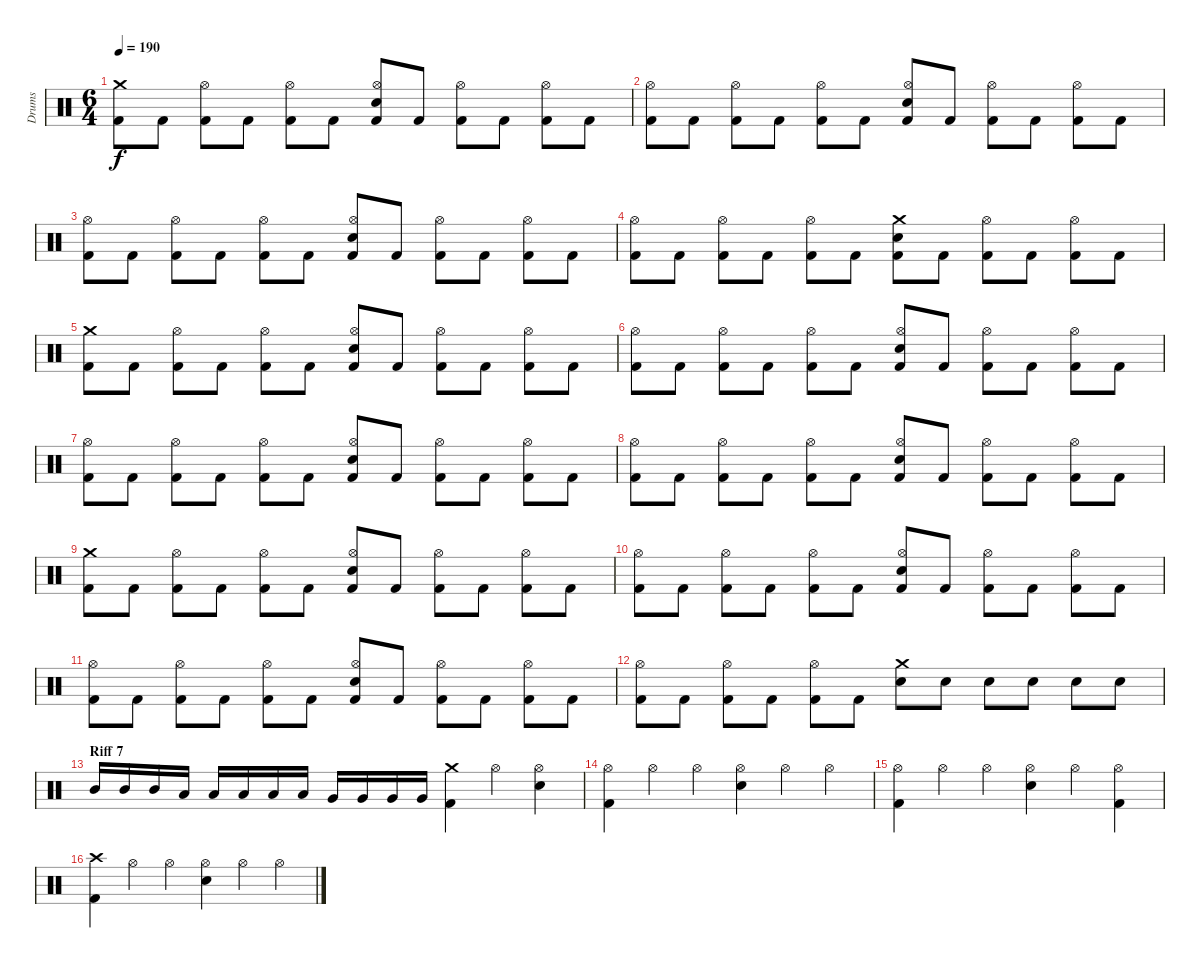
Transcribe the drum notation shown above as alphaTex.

\track ("Drums" "Drums") {instrument percussion}
\staff {score}
\articulation defaults
\ts (6 4)
\tempo 190
\clef neutral
\ks c
("Crash medium (hit)" "Kick (hit) 2").8{dy f} "Kick (hit) 2".8 ("Hi-Hat (open)" "Kick (hit) 2").8 "Kick (hit) 2".8 ("Hi-Hat (open)" "Kick (hit) 2").8 "Kick (hit) 2".8 ("Hi-Hat (open)" "Electric Snare (hit)" "Kick (hit) 2").8 "Kick (hit) 2".8 ("Hi-Hat (open)" "Kick (hit) 2").8 "Kick (hit) 2".8 ("Hi-Hat (open)" "Kick (hit) 2").8 "Kick (hit) 2".8 |
("Hi-Hat (open)" "Kick (hit) 2").8 "Kick (hit) 2".8 ("Hi-Hat (open)" "Kick (hit) 2").8 "Kick (hit) 2".8 ("Hi-Hat (open)" "Kick (hit) 2").8 "Kick (hit) 2".8 ("Hi-Hat (open)" "Electric Snare (hit)" "Kick (hit) 2").8 "Kick (hit) 2".8 ("Hi-Hat (open)" "Kick (hit) 2").8 "Kick (hit) 2".8 ("Hi-Hat (open)" "Kick (hit) 2").8 "Kick (hit) 2".8 |
("Hi-Hat (open)" "Kick (hit) 2").8 "Kick (hit) 2".8 ("Hi-Hat (open)" "Kick (hit) 2").8 "Kick (hit) 2".8 ("Hi-Hat (open)" "Kick (hit) 2").8 "Kick (hit) 2".8 ("Hi-Hat (open)" "Electric Snare (hit)" "Kick (hit) 2").8 "Kick (hit) 2".8 ("Hi-Hat (open)" "Kick (hit) 2").8 "Kick (hit) 2".8 ("Hi-Hat (open)" "Kick (hit) 2").8 "Kick (hit) 2".8 |
("Hi-Hat (open)" "Kick (hit) 2").8 "Kick (hit) 2".8 ("Hi-Hat (open)" "Kick (hit) 2").8 "Kick (hit) 2".8 ("Hi-Hat (open)" "Kick (hit) 2").8 "Kick (hit) 2".8 ("Crash medium (hit)" "Electric Snare (hit)" "Kick (hit) 2").8 "Kick (hit) 2".8 ("Hi-Hat (open)" "Kick (hit) 2").8 "Kick (hit) 2".8 ("Hi-Hat (open)" "Kick (hit) 2").8 "Kick (hit) 2".8 |
("Crash medium (hit)" "Kick (hit) 2").8{volume 13} "Kick (hit) 2".8 ("Hi-Hat (open)" "Kick (hit) 2").8 "Kick (hit) 2".8 ("Hi-Hat (open)" "Kick (hit) 2").8 "Kick (hit) 2".8 ("Hi-Hat (open)" "Electric Snare (hit)" "Kick (hit) 2").8 "Kick (hit) 2".8 ("Hi-Hat (open)" "Kick (hit) 2").8 "Kick (hit) 2".8 ("Hi-Hat (open)" "Kick (hit) 2").8 "Kick (hit) 2".8 |
("Hi-Hat (open)" "Kick (hit) 2").8 "Kick (hit) 2".8 ("Hi-Hat (open)" "Kick (hit) 2").8 "Kick (hit) 2".8 ("Hi-Hat (open)" "Kick (hit) 2").8 "Kick (hit) 2".8 ("Hi-Hat (open)" "Electric Snare (hit)" "Kick (hit) 2").8 "Kick (hit) 2".8 ("Hi-Hat (open)" "Kick (hit) 2").8 "Kick (hit) 2".8 ("Hi-Hat (open)" "Kick (hit) 2").8 "Kick (hit) 2".8 |
("Hi-Hat (open)" "Kick (hit) 2").8 "Kick (hit) 2".8 ("Hi-Hat (open)" "Kick (hit) 2").8 "Kick (hit) 2".8 ("Hi-Hat (open)" "Kick (hit) 2").8 "Kick (hit) 2".8 ("Hi-Hat (open)" "Electric Snare (hit)" "Kick (hit) 2").8 "Kick (hit) 2".8 ("Hi-Hat (open)" "Kick (hit) 2").8 "Kick (hit) 2".8 ("Hi-Hat (open)" "Kick (hit) 2").8 "Kick (hit) 2".8 |
("Hi-Hat (open)" "Kick (hit) 2").8 "Kick (hit) 2".8 ("Hi-Hat (open)" "Kick (hit) 2").8 "Kick (hit) 2".8 ("Hi-Hat (open)" "Kick (hit) 2").8 "Kick (hit) 2".8 ("Hi-Hat (open)" "Electric Snare (hit)" "Kick (hit) 2").8 "Kick (hit) 2".8 ("Hi-Hat (open)" "Kick (hit) 2").8 "Kick (hit) 2".8 ("Hi-Hat (open)" "Kick (hit) 2").8 "Kick (hit) 2".8 |
("Crash medium (hit)" "Kick (hit) 2").8 "Kick (hit) 2".8 ("Hi-Hat (open)" "Kick (hit) 2").8 "Kick (hit) 2".8 ("Hi-Hat (open)" "Kick (hit) 2").8 "Kick (hit) 2".8 ("Hi-Hat (open)" "Electric Snare (hit)" "Kick (hit) 2").8 "Kick (hit) 2".8 ("Hi-Hat (open)" "Kick (hit) 2").8 "Kick (hit) 2".8 ("Hi-Hat (open)" "Kick (hit) 2").8 "Kick (hit) 2".8 |
("Hi-Hat (open)" "Kick (hit) 2").8 "Kick (hit) 2".8 ("Hi-Hat (open)" "Kick (hit) 2").8 "Kick (hit) 2".8 ("Hi-Hat (open)" "Kick (hit) 2").8 "Kick (hit) 2".8 ("Hi-Hat (open)" "Electric Snare (hit)" "Kick (hit) 2").8 "Kick (hit) 2".8 ("Hi-Hat (open)" "Kick (hit) 2").8 "Kick (hit) 2".8 ("Hi-Hat (open)" "Kick (hit) 2").8 "Kick (hit) 2".8 |
("Hi-Hat (open)" "Kick (hit) 2").8 "Kick (hit) 2".8 ("Hi-Hat (open)" "Kick (hit) 2").8 "Kick (hit) 2".8 ("Hi-Hat (open)" "Kick (hit) 2").8 "Kick (hit) 2".8 ("Hi-Hat (open)" "Electric Snare (hit)" "Kick (hit) 2").8 "Kick (hit) 2".8 ("Hi-Hat (open)" "Kick (hit) 2").8 "Kick (hit) 2".8 ("Hi-Hat (open)" "Kick (hit) 2").8 "Kick (hit) 2".8 |
("Hi-Hat (open)" "Kick (hit) 2").8 "Kick (hit) 2".8 ("Hi-Hat (open)" "Kick (hit) 2").8 "Kick (hit) 2".8 ("Hi-Hat (open)" "Kick (hit) 2").8 "Kick (hit) 2".8 ("Crash medium (hit)" "Electric Snare (hit)").8 "Electric Snare (hit)".8 "Electric Snare (hit)".8 "Electric Snare (hit)".8 "Electric Snare (hit)".8 "Electric Snare (hit)".8 |
\section ("" "Riff 7")
"Mid Tom (hit)".16 "Mid Tom (hit)".16 "Mid Tom (hit)".16 "Low Tom (hit)".16 "Low Tom (hit)".16 "Low Tom (hit)".16 "Low Tom (hit)".16 "Low Tom (hit)".16 "Very Low Tom (hit)".16 "Very Low Tom (hit)".16 "Very Low Tom (hit)".16 "Very Low Tom (hit)".16 ("Crash medium (hit)" "Kick (hit) 2").4 "Hi-Hat (open)".4 ("Hi-Hat (open)" "Electric Snare (hit)").4 |
("Hi-Hat (open)" "Kick (hit) 2").4 "Hi-Hat (open)".4 "Hi-Hat (open)".4 ("Hi-Hat (open)" "Electric Snare (hit)").4 "Hi-Hat (open)".4 "Hi-Hat (open)".4 |
("Hi-Hat (open)" "Kick (hit) 2").4 "Hi-Hat (open)".4 "Hi-Hat (open)".4 ("Hi-Hat (open)" "Electric Snare (hit)").4 "Hi-Hat (open)".4 ("Hi-Hat (open)" "Kick (hit) 2").4 |
("Crash high (hit)" "Kick (hit) 2").4 "Hi-Hat (open)".4 "Hi-Hat (open)".4 ("Hi-Hat (open)" "Electric Snare (hit)").4 "Hi-Hat (open)".4 "Hi-Hat (open)".4
